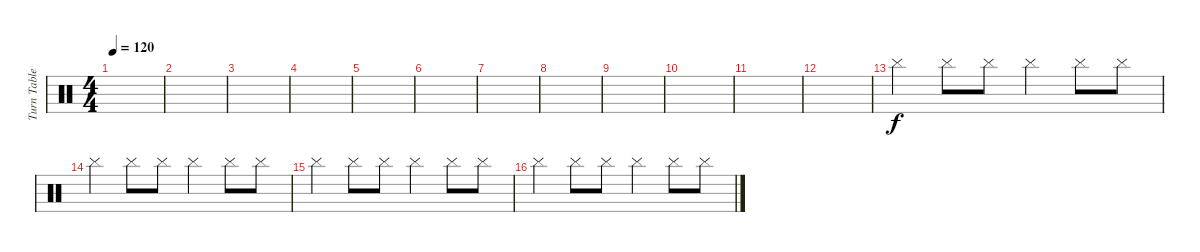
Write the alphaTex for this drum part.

\track ("Turn Tables" "Turn Table") {instrument percussion}
\staff {score}
\articulation defaults
\ts (4 4)
\tempo 120
\clef neutral
\ks c
|
|
|
|
|
|
|
|
|
|
|
|
"Cymbal (hit)".4 "Cymbal (hit)".8 "Cymbal (hit)".8 "Cymbal (hit)".4 "Cymbal (hit)".8 "Cymbal (hit)".8 |
"Cymbal (hit)".4 "Cymbal (hit)".8 "Cymbal (hit)".8 "Cymbal (hit)".4 "Cymbal (hit)".8 "Cymbal (hit)".8 |
"Cymbal (hit)".4 "Cymbal (hit)".8 "Cymbal (hit)".8 "Cymbal (hit)".4 "Cymbal (hit)".8 "Cymbal (hit)".8 |
"Cymbal (hit)".4 "Cymbal (hit)".8 "Cymbal (hit)".8 "Cymbal (hit)".4 "Cymbal (hit)".8 "Cymbal (hit)".8
